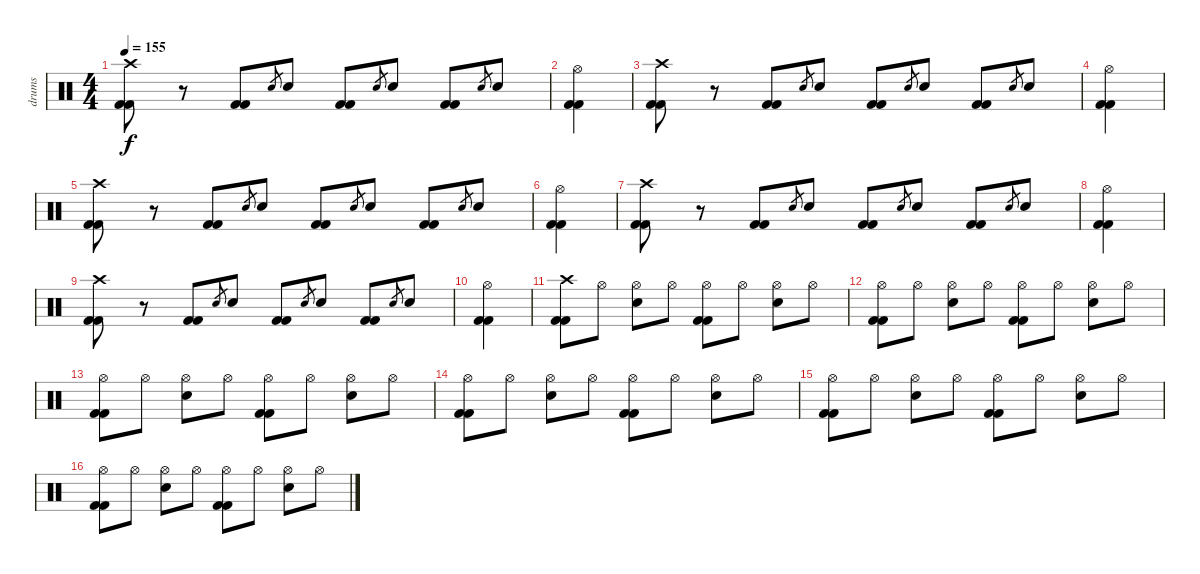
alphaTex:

\track ("drums" "drums") {instrument percussion}
\staff {score}
\articulation defaults
\ts (4 4)
\tempo 155
\clef neutral
\ks c
("Crash high (hit)" "Kick (hit) 2" "Kick (hit) 2").8{dy f} r.8 ("Kick (hit) 2" "Kick (hit) 2").8 "Electric Snare (hit)".8{gr} "Electric Snare (hit)".8 ("Kick (hit) 2" "Kick (hit) 2").8 "Electric Snare (hit)".8{gr} "Electric Snare (hit)".8 ("Kick (hit) 2" "Kick (hit) 2").8 "Electric Snare (hit)".8{gr} "Electric Snare (hit)".8 |
("Hi-Hat (open)" "Kick (hit) 2" "Kick (hit) 2").4 |
("Crash high (hit)" "Kick (hit) 2" "Kick (hit) 2").8 r.8 ("Kick (hit) 2" "Kick (hit) 2").8 "Electric Snare (hit)".8{gr} "Electric Snare (hit)".8 ("Kick (hit) 2" "Kick (hit) 2").8 "Electric Snare (hit)".8{gr} "Electric Snare (hit)".8 ("Kick (hit) 2" "Kick (hit) 2").8 "Electric Snare (hit)".8{gr} "Electric Snare (hit)".8 |
("Hi-Hat (open)" "Kick (hit) 2" "Kick (hit) 2").4 |
("Crash high (hit)" "Kick (hit) 2" "Kick (hit) 2").8 r.8 ("Kick (hit) 2" "Kick (hit) 2").8 "Electric Snare (hit)".8{gr} "Electric Snare (hit)".8 ("Kick (hit) 2" "Kick (hit) 2").8 "Electric Snare (hit)".8{gr} "Electric Snare (hit)".8 ("Kick (hit) 2" "Kick (hit) 2").8 "Electric Snare (hit)".8{gr} "Electric Snare (hit)".8 |
("Hi-Hat (open)" "Kick (hit) 2" "Kick (hit) 2").4 |
("Crash high (hit)" "Kick (hit) 2" "Kick (hit) 2").8 r.8 ("Kick (hit) 2" "Kick (hit) 2").8 "Electric Snare (hit)".8{gr} "Electric Snare (hit)".8 ("Kick (hit) 2" "Kick (hit) 2").8 "Electric Snare (hit)".8{gr} "Electric Snare (hit)".8 ("Kick (hit) 2" "Kick (hit) 2").8 "Electric Snare (hit)".8{gr} "Electric Snare (hit)".8 |
("Hi-Hat (open)" "Kick (hit) 2" "Kick (hit) 2").4 |
("Crash high (hit)" "Kick (hit) 2" "Kick (hit) 2").8 r.8 ("Kick (hit) 2" "Kick (hit) 2").8 "Electric Snare (hit)".8{gr} "Electric Snare (hit)".8 ("Kick (hit) 2" "Kick (hit) 2").8 "Electric Snare (hit)".8{gr} "Electric Snare (hit)".8 ("Kick (hit) 2" "Kick (hit) 2").8 "Electric Snare (hit)".8{gr} "Electric Snare (hit)".8 |
("Hi-Hat (open)" "Kick (hit) 2" "Kick (hit) 2").4 |
("Crash high (hit)" "Kick (hit) 2" "Kick (hit) 2").8 "Hi-Hat (open)".8 ("Hi-Hat (open)" "Electric Snare (hit)").8 "Hi-Hat (open)".8 ("Hi-Hat (open)" "Kick (hit) 2" "Kick (hit) 2").8 "Hi-Hat (open)".8 ("Hi-Hat (open)" "Electric Snare (hit)").8 "Hi-Hat (open)".8 |
("Hi-Hat (open)" "Kick (hit) 2" "Kick (hit) 2").8 "Hi-Hat (open)".8 ("Hi-Hat (open)" "Electric Snare (hit)").8 "Hi-Hat (open)".8 ("Hi-Hat (open)" "Kick (hit) 2" "Kick (hit) 2").8 "Hi-Hat (open)".8 ("Hi-Hat (open)" "Electric Snare (hit)").8 "Hi-Hat (open)".8 |
("Hi-Hat (open)" "Kick (hit) 2" "Kick (hit) 2").8 "Hi-Hat (open)".8 ("Hi-Hat (open)" "Electric Snare (hit)").8 "Hi-Hat (open)".8 ("Hi-Hat (open)" "Kick (hit) 2" "Kick (hit) 2").8 "Hi-Hat (open)".8 ("Hi-Hat (open)" "Electric Snare (hit)").8 "Hi-Hat (open)".8 |
("Hi-Hat (open)" "Kick (hit) 2" "Kick (hit) 2").8 "Hi-Hat (open)".8 ("Hi-Hat (open)" "Electric Snare (hit)").8 "Hi-Hat (open)".8 ("Hi-Hat (open)" "Kick (hit) 2" "Kick (hit) 2").8 "Hi-Hat (open)".8 ("Hi-Hat (open)" "Electric Snare (hit)").8 "Hi-Hat (open)".8 |
("Hi-Hat (open)" "Kick (hit) 2" "Kick (hit) 2").8 "Hi-Hat (open)".8 ("Hi-Hat (open)" "Electric Snare (hit)").8 "Hi-Hat (open)".8 ("Hi-Hat (open)" "Kick (hit) 2" "Kick (hit) 2").8 "Hi-Hat (open)".8 ("Hi-Hat (open)" "Electric Snare (hit)").8 "Hi-Hat (open)".8 |
("Hi-Hat (open)" "Kick (hit) 2" "Kick (hit) 2").8 "Hi-Hat (open)".8 ("Hi-Hat (open)" "Electric Snare (hit)").8 "Hi-Hat (open)".8 ("Hi-Hat (open)" "Kick (hit) 2" "Kick (hit) 2").8 "Hi-Hat (open)".8 ("Hi-Hat (open)" "Electric Snare (hit)").8 "Hi-Hat (open)".8
